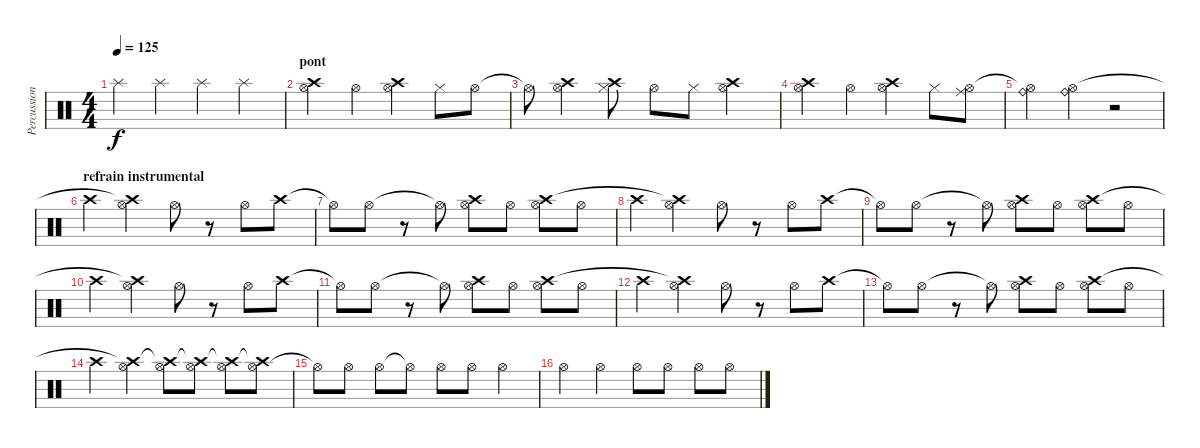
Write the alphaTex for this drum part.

\track ("Percussions" "Percussion") {instrument percussion}
\staff {score}
\articulation defaults
\ts (4 4)
\tempo 125
\clef neutral
\ks c "Splash (hit)".4{dy f} "Splash (hit)".4 "Splash (hit)".4 "Splash (hit)".4
|
\section ("" "pont")
("Crash high (hit)" "Hi-Hat (open)").4 "Hi-Hat (open)".4 ("Crash high (hit)" "Hi-Hat (open)").4 "Hi-Hat (closed)".8 "Hi-Hat (open)".8 |
"Hi-Hat (open)"{t}.8 ("Crash high (hit)" "Hi-Hat (open)").4 ("Crash high (hit)" "Hi-Hat (closed)").8 "Hi-Hat (open)".8 "Hi-Hat (closed)".8 ("Crash high (hit)" "Hi-Hat (open)").4 |
("Crash high (hit)" "Hi-Hat (open)").4 "Hi-Hat (open)".4 ("Crash high (hit)" "Hi-Hat (open)").4 "Hi-Hat (closed)".8 ("Ride (middle)" "Hi-Hat (open)").8 |
("Ride (bell)" "Hi-Hat (open)"{t}).4 ("Ride (bell)" "Hi-Hat (open)").4 r.2 |
\section ("" "refrain instrumental")
"Crash high (hit)".4 ("Hi-Hat (open)" "Crash high (hit)"{t}).4 "Hi-Hat (open)".8 r.8 "Hi-Hat (open)".8 "Crash high (hit)".8 |
"Hi-Hat (open)"{t}.8 "Hi-Hat (open)".8 r.8 "Hi-Hat (open)"{t}.8 ("Hi-Hat (open)" "Crash high (hit)").8 "Hi-Hat (open)".8 ("Hi-Hat (open)" "Crash high (hit)").8 "Hi-Hat (open)".8 |
"Crash high (hit)".4 ("Hi-Hat (open)" "Crash high (hit)"{t}).4 "Hi-Hat (open)".8 r.8 "Hi-Hat (open)".8 "Crash high (hit)".8 |
"Hi-Hat (open)"{t}.8 "Hi-Hat (open)".8 r.8 "Hi-Hat (open)"{t}.8 ("Hi-Hat (open)" "Crash high (hit)").8 "Hi-Hat (open)".8 ("Hi-Hat (open)" "Crash high (hit)").8 "Hi-Hat (open)".8 |
"Crash high (hit)".4 ("Hi-Hat (open)" "Crash high (hit)"{t}).4 "Hi-Hat (open)".8 r.8 "Hi-Hat (open)".8 "Crash high (hit)".8 |
"Hi-Hat (open)"{t}.8 "Hi-Hat (open)".8 r.8 "Hi-Hat (open)"{t}.8 ("Hi-Hat (open)" "Crash high (hit)").8 "Hi-Hat (open)".8 ("Hi-Hat (open)" "Crash high (hit)").8 "Hi-Hat (open)".8 |
"Crash high (hit)".4 ("Hi-Hat (open)" "Crash high (hit)"{t}).4 "Hi-Hat (open)".8 r.8 "Hi-Hat (open)".8 "Crash high (hit)".8 |
"Hi-Hat (open)"{t}.8 "Hi-Hat (open)".8 r.8 "Hi-Hat (open)"{t}.8 ("Hi-Hat (open)" "Crash high (hit)").8 "Hi-Hat (open)".8 ("Hi-Hat (open)" "Crash high (hit)").8 "Hi-Hat (open)".8 |
"Crash high (hit)".4 ("Hi-Hat (open)" "Crash high (hit)"{t}).4 ("Hi-Hat (open)" "Crash high (hit)"{t}).8 ("Hi-Hat (open)" "Crash high (hit)"{t}).8 ("Hi-Hat (open)" "Crash high (hit)"{t}).8 ("Hi-Hat (open)" "Crash high (hit)"{t}).8 |
"Hi-Hat (open)"{t}.8 "Hi-Hat (open)".8 "Hi-Hat (open)".8 "Hi-Hat (open)"{t}.8 "Hi-Hat (open)".8 "Hi-Hat (open)".8 "Hi-Hat (open)".4 |
"Hi-Hat (open)".4 "Hi-Hat (open)".4 "Hi-Hat (open)".8 "Hi-Hat (open)".8 "Hi-Hat (open)".8 "Hi-Hat (open)".8
